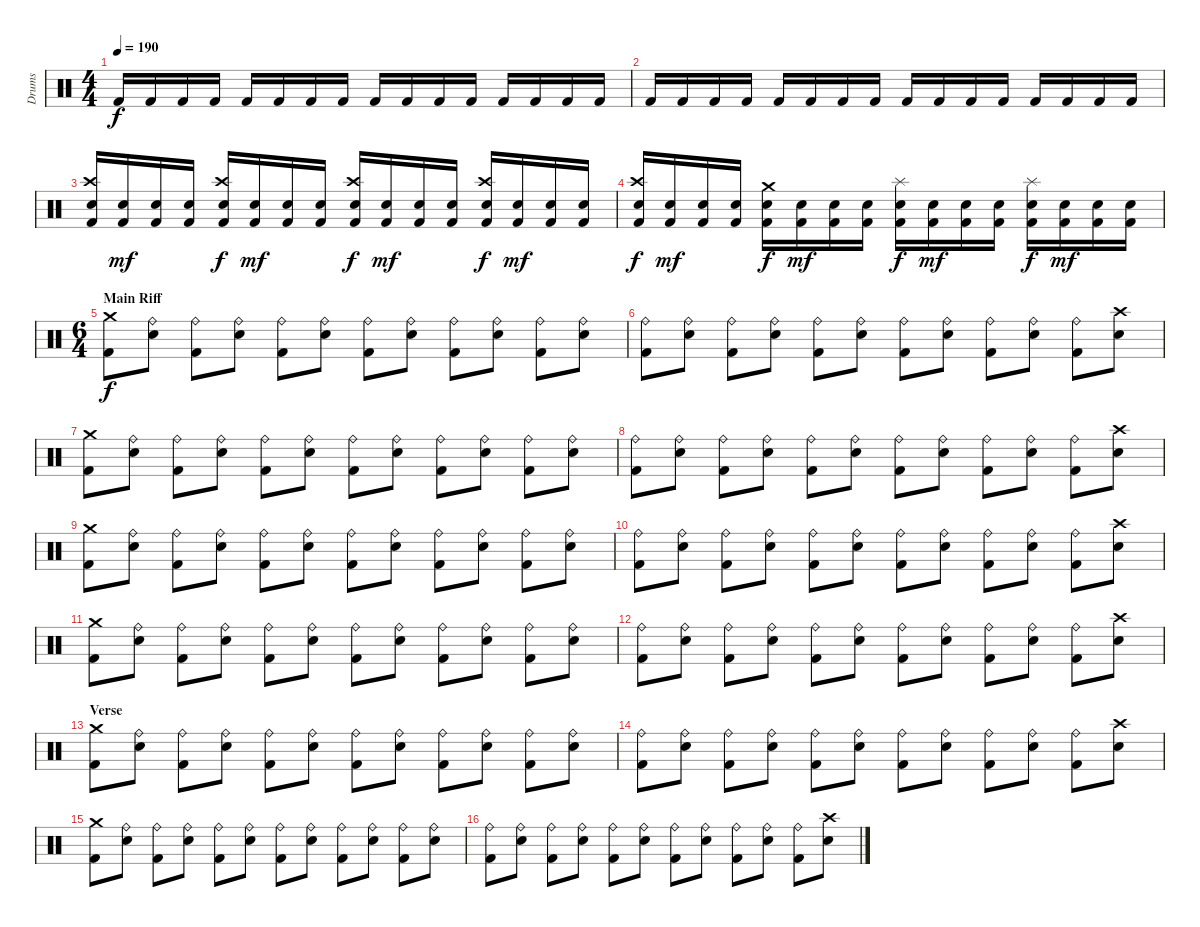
\track ("Drums" "Drums") {instrument percussion}
\staff {score}
\articulation defaults
\ts (4 4)
\tempo 190
\clef neutral
\ks c "Kick (hit) 2".16{dy f} "Kick (hit) 2".16 "Kick (hit) 2".16 "Kick (hit) 2".16 "Kick (hit) 2".16 "Kick (hit) 2".16 "Kick (hit) 2".16 "Kick (hit) 2".16 "Kick (hit) 2".16 "Kick (hit) 2".16 "Kick (hit) 2".16 "Kick (hit) 2".16 "Kick (hit) 2".16 "Kick (hit) 2".16 "Kick (hit) 2".16 "Kick (hit) 2".16
|
"Kick (hit) 2".16 "Kick (hit) 2".16 "Kick (hit) 2".16 "Kick (hit) 2".16 "Kick (hit) 2".16 "Kick (hit) 2".16 "Kick (hit) 2".16 "Kick (hit) 2".16 "Kick (hit) 2".16 "Kick (hit) 2".16 "Kick (hit) 2".16 "Kick (hit) 2".16 "Kick (hit) 2".16 "Kick (hit) 2".16 "Kick (hit) 2".16 "Kick (hit) 2".16 |
("Crash high (hit)" "Snare (hit) 2" "Kick (hit) 2").16 ("Snare (hit) 2" "Kick (hit) 2").16{dy mf} ("Snare (hit) 2" "Kick (hit) 2").16 ("Snare (hit) 2" "Kick (hit) 2").16 ("Crash high (hit)" "Snare (hit) 2" "Kick (hit) 2").16{dy f} ("Snare (hit) 2" "Kick (hit) 2").16{dy mf} ("Snare (hit) 2" "Kick (hit) 2").16 ("Snare (hit) 2" "Kick (hit) 2").16 ("Crash high (hit)" "Snare (hit) 2" "Kick (hit) 2").16{dy f} ("Snare (hit) 2" "Kick (hit) 2").16{dy mf} ("Snare (hit) 2" "Kick (hit) 2").16 ("Snare (hit) 2" "Kick (hit) 2").16 ("Crash high (hit)" "Snare (hit) 2" "Kick (hit) 2").16{dy f} ("Snare (hit) 2" "Kick (hit) 2").16{dy mf} ("Snare (hit) 2" "Kick (hit) 2").16 ("Snare (hit) 2" "Kick (hit) 2").16 |
("Crash high (hit)" "Snare (hit) 2" "Kick (hit) 2").16{dy f} ("Snare (hit) 2" "Kick (hit) 2").16{dy mf} ("Snare (hit) 2" "Kick (hit) 2").16 ("Snare (hit) 2" "Kick (hit) 2").16 ("Crash medium (hit)" "Snare (hit) 2" "Kick (hit) 2").16{dy f} ("Snare (hit) 2" "Kick (hit) 2").16{dy mf} ("Snare (hit) 2" "Kick (hit) 2").16 ("Snare (hit) 2" "Kick (hit) 2").16 ("Splash (hit)" "Snare (hit) 2" "Kick (hit) 2").16{dy f} ("Snare (hit) 2" "Kick (hit) 2").16{dy mf} ("Snare (hit) 2" "Kick (hit) 2").16 ("Snare (hit) 2" "Kick (hit) 2").16 ("Splash (hit)" "Snare (hit) 2" "Kick (hit) 2").16{dy f} ("Snare (hit) 2" "Kick (hit) 2").16{dy mf} ("Snare (hit) 2" "Kick (hit) 2").16 ("Snare (hit) 2" "Kick (hit) 2").16 |
\ts (6 4)
\section ("" "Main Riff")
("Crash medium (hit)" "Kick (hit) 2").8{dy f} ("Ride (bell)" "Snare (hit) 2").8 ("Ride (bell)" "Kick (hit) 2").8 ("Ride (bell)" "Snare (hit) 2").8 ("Ride (bell)" "Kick (hit) 2").8 ("Ride (bell)" "Snare (hit) 2").8 ("Ride (bell)" "Kick (hit) 2").8 ("Ride (bell)" "Snare (hit) 2").8 ("Ride (bell)" "Kick (hit) 2").8 ("Ride (bell)" "Snare (hit) 2").8 ("Ride (bell)" "Kick (hit) 2").8 ("Ride (bell)" "Snare (hit) 2").8 |
("Ride (bell)" "Kick (hit) 2").8 ("Ride (bell)" "Snare (hit) 2").8 ("Ride (bell)" "Kick (hit) 2").8 ("Ride (bell)" "Snare (hit) 2").8 ("Ride (bell)" "Kick (hit) 2").8 ("Ride (bell)" "Snare (hit) 2").8 ("Ride (bell)" "Kick (hit) 2").8 ("Ride (bell)" "Snare (hit) 2").8 ("Ride (bell)" "Kick (hit) 2").8 ("Ride (bell)" "Snare (hit) 2").8 ("Ride (bell)" "Kick (hit) 2").8 ("Crash high (hit)" "Snare (hit) 2").8 |
("Crash medium (hit)" "Kick (hit) 2").8 ("Ride (bell)" "Snare (hit) 2").8 ("Ride (bell)" "Kick (hit) 2").8 ("Ride (bell)" "Snare (hit) 2").8 ("Ride (bell)" "Kick (hit) 2").8 ("Ride (bell)" "Snare (hit) 2").8 ("Ride (bell)" "Kick (hit) 2").8 ("Ride (bell)" "Snare (hit) 2").8 ("Ride (bell)" "Kick (hit) 2").8 ("Ride (bell)" "Snare (hit) 2").8 ("Ride (bell)" "Kick (hit) 2").8 ("Ride (bell)" "Snare (hit) 2").8 |
("Ride (bell)" "Kick (hit) 2").8 ("Ride (bell)" "Snare (hit) 2").8 ("Ride (bell)" "Kick (hit) 2").8 ("Ride (bell)" "Snare (hit) 2").8 ("Ride (bell)" "Kick (hit) 2").8 ("Ride (bell)" "Snare (hit) 2").8 ("Ride (bell)" "Kick (hit) 2").8 ("Ride (bell)" "Snare (hit) 2").8 ("Ride (bell)" "Kick (hit) 2").8 ("Ride (bell)" "Snare (hit) 2").8 ("Ride (bell)" "Kick (hit) 2").8 ("Crash high (hit)" "Snare (hit) 2").8 |
("Crash medium (hit)" "Kick (hit) 2").8 ("Ride (bell)" "Snare (hit) 2").8 ("Ride (bell)" "Kick (hit) 2").8 ("Ride (bell)" "Snare (hit) 2").8 ("Ride (bell)" "Kick (hit) 2").8 ("Ride (bell)" "Snare (hit) 2").8 ("Ride (bell)" "Kick (hit) 2").8 ("Ride (bell)" "Snare (hit) 2").8 ("Ride (bell)" "Kick (hit) 2").8 ("Ride (bell)" "Snare (hit) 2").8 ("Ride (bell)" "Kick (hit) 2").8 ("Ride (bell)" "Snare (hit) 2").8 |
("Ride (bell)" "Kick (hit) 2").8 ("Ride (bell)" "Snare (hit) 2").8 ("Ride (bell)" "Kick (hit) 2").8 ("Ride (bell)" "Snare (hit) 2").8 ("Ride (bell)" "Kick (hit) 2").8 ("Ride (bell)" "Snare (hit) 2").8 ("Ride (bell)" "Kick (hit) 2").8 ("Ride (bell)" "Snare (hit) 2").8 ("Ride (bell)" "Kick (hit) 2").8 ("Ride (bell)" "Snare (hit) 2").8 ("Ride (bell)" "Kick (hit) 2").8 ("Crash high (hit)" "Snare (hit) 2").8 |
("Crash medium (hit)" "Kick (hit) 2").8 ("Ride (bell)" "Snare (hit) 2").8 ("Ride (bell)" "Kick (hit) 2").8 ("Ride (bell)" "Snare (hit) 2").8 ("Ride (bell)" "Kick (hit) 2").8 ("Ride (bell)" "Snare (hit) 2").8 ("Ride (bell)" "Kick (hit) 2").8 ("Ride (bell)" "Snare (hit) 2").8 ("Ride (bell)" "Kick (hit) 2").8 ("Ride (bell)" "Snare (hit) 2").8 ("Ride (bell)" "Kick (hit) 2").8 ("Ride (bell)" "Snare (hit) 2").8 |
("Ride (bell)" "Kick (hit) 2").8 ("Ride (bell)" "Snare (hit) 2").8 ("Ride (bell)" "Kick (hit) 2").8 ("Ride (bell)" "Snare (hit) 2").8 ("Ride (bell)" "Kick (hit) 2").8 ("Ride (bell)" "Snare (hit) 2").8 ("Ride (bell)" "Kick (hit) 2").8 ("Ride (bell)" "Snare (hit) 2").8 ("Ride (bell)" "Kick (hit) 2").8 ("Ride (bell)" "Snare (hit) 2").8 ("Ride (bell)" "Kick (hit) 2").8 ("Crash high (hit)" "Snare (hit) 2").8 |
\section ("" "Verse")
("Crash medium (hit)" "Kick (hit) 2").8 ("Ride (bell)" "Snare (hit) 2").8 ("Ride (bell)" "Kick (hit) 2").8 ("Ride (bell)" "Snare (hit) 2").8 ("Ride (bell)" "Kick (hit) 2").8 ("Ride (bell)" "Snare (hit) 2").8 ("Ride (bell)" "Kick (hit) 2").8 ("Ride (bell)" "Snare (hit) 2").8 ("Ride (bell)" "Kick (hit) 2").8 ("Ride (bell)" "Snare (hit) 2").8 ("Ride (bell)" "Kick (hit) 2").8 ("Ride (bell)" "Snare (hit) 2").8 |
("Ride (bell)" "Kick (hit) 2").8 ("Ride (bell)" "Snare (hit) 2").8 ("Ride (bell)" "Kick (hit) 2").8 ("Ride (bell)" "Snare (hit) 2").8 ("Ride (bell)" "Kick (hit) 2").8 ("Ride (bell)" "Snare (hit) 2").8 ("Ride (bell)" "Kick (hit) 2").8 ("Ride (bell)" "Snare (hit) 2").8 ("Ride (bell)" "Kick (hit) 2").8 ("Ride (bell)" "Snare (hit) 2").8 ("Ride (bell)" "Kick (hit) 2").8 ("Crash high (hit)" "Snare (hit) 2").8 |
("Crash medium (hit)" "Kick (hit) 2").8 ("Ride (bell)" "Snare (hit) 2").8 ("Ride (bell)" "Kick (hit) 2").8 ("Ride (bell)" "Snare (hit) 2").8 ("Ride (bell)" "Kick (hit) 2").8 ("Ride (bell)" "Snare (hit) 2").8 ("Ride (bell)" "Kick (hit) 2").8 ("Ride (bell)" "Snare (hit) 2").8 ("Ride (bell)" "Kick (hit) 2").8 ("Ride (bell)" "Snare (hit) 2").8 ("Ride (bell)" "Kick (hit) 2").8 ("Ride (bell)" "Snare (hit) 2").8 |
("Ride (bell)" "Kick (hit) 2").8 ("Ride (bell)" "Snare (hit) 2").8 ("Ride (bell)" "Kick (hit) 2").8 ("Ride (bell)" "Snare (hit) 2").8 ("Ride (bell)" "Kick (hit) 2").8 ("Ride (bell)" "Snare (hit) 2").8 ("Ride (bell)" "Kick (hit) 2").8 ("Ride (bell)" "Snare (hit) 2").8 ("Ride (bell)" "Kick (hit) 2").8 ("Ride (bell)" "Snare (hit) 2").8 ("Ride (bell)" "Kick (hit) 2").8 ("Crash high (hit)" "Snare (hit) 2").8
